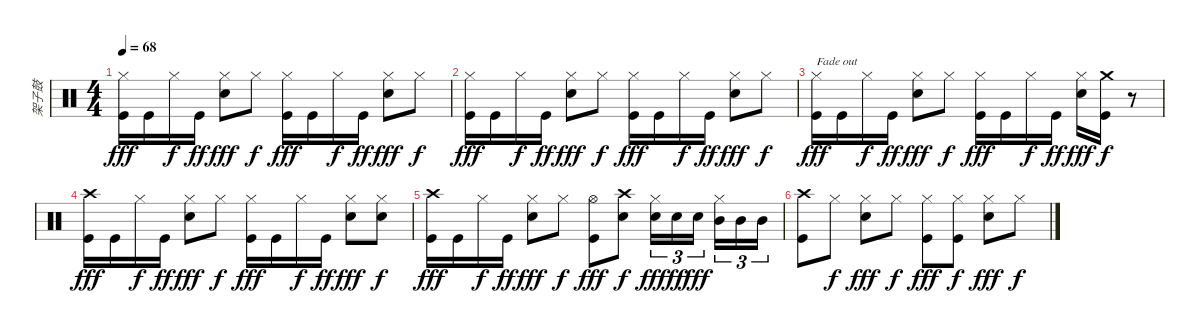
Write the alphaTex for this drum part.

\track ("架子鼓" "架子鼓") {instrument percussion}
\staff {score}
\articulation defaults
\ts (4 4)
\tempo 68
\clef neutral
\ks c
("Hi-Hat (closed)" "Kick (hit)").16{dy fff} "Kick (hit)".16 "Hi-Hat (closed)".16{dy f} "Kick (hit)".16{dy ff} ("Hi-Hat (closed)" "Snare (hit) 2").8{dy fff} "Hi-Hat (closed)".8{dy f} ("Hi-Hat (closed)" "Kick (hit)").16{dy fff} "Kick (hit)".16 "Hi-Hat (closed)".16{dy f} "Kick (hit)".16{dy ff} ("Hi-Hat (closed)" "Snare (hit) 2").8{dy fff} "Hi-Hat (closed)".8{dy f} |
("Hi-Hat (closed)" "Kick (hit)").16{dy fff} "Kick (hit)".16 "Hi-Hat (closed)".16{dy f} "Kick (hit)".16{dy ff} ("Hi-Hat (closed)" "Snare (hit) 2").8{dy fff} "Hi-Hat (closed)".8{dy f} ("Hi-Hat (closed)" "Kick (hit)").16{dy fff} "Kick (hit)".16 "Hi-Hat (closed)".16{dy f} "Kick (hit)".16{dy ff} ("Hi-Hat (closed)" "Snare (hit) 2").8{dy fff} "Hi-Hat (closed)".8{dy f} |
("Hi-Hat (closed)" "Kick (hit)").16{txt "Fade out" dy fff volume 8} "Kick (hit)".16 "Hi-Hat (closed)".16{dy f} "Kick (hit)".16{dy ff} ("Hi-Hat (closed)" "Snare (hit) 2").8{dy fff} "Hi-Hat (closed)".8{dy f} ("Hi-Hat (closed)" "Kick (hit)").16{dy fff} "Kick (hit)".16 "Hi-Hat (closed)".16{dy f} "Kick (hit)".16{dy ff} ("Hi-Hat (closed)" "Snare (hit) 2").16{dy fff} ("Crash medium (hit)" "Kick (hit)").16{dy f} r.8 |
("Crash high (hit)" "Kick (hit)").16{dy fff} "Kick (hit)".16 "Hi-Hat (closed)".16{dy f} "Kick (hit)".16{dy ff} ("Hi-Hat (closed)" "Snare (hit) 2").8{dy fff} "Hi-Hat (closed)".8{dy f} ("Hi-Hat (closed)" "Kick (hit)").16{dy fff} "Kick (hit)".16 "Hi-Hat (closed)".16{dy f} "Kick (hit)".16{dy ff} ("Hi-Hat (closed)" "Snare (hit) 2").8{dy fff} ("Hi-Hat (closed)" "Snare (hit) 2").8{dy f} |
("Crash high (hit)" "Kick (hit)").16{dy fff volume 0} "Kick (hit)".16 "Hi-Hat (closed)".16{dy f} "Kick (hit)".16{dy ff} ("Hi-Hat (closed)" "Snare (hit) 2").8{dy fff} "Hi-Hat (closed)".8{dy f} ("Hi-Hat (open)" "Kick (hit)").8{dy fff} ("Crash high (hit)" "Snare (hit) 2").8{dy f} ("Hi-Hat (closed)" "Snare (hit) 2").16{tu (3 2) dy fff} "Snare (hit) 2".16{tu (3 2) dy ff} "Snare (hit) 2".16{tu (3 2) dy fff} ("Hi-Hat (closed)" "Mid Tom (hit)").16{tu (3 2)} "Mid Tom (hit)".16{tu (3 2)} "Mid Tom (hit)".16{tu (3 2)} |
("Crash high (hit)" "Kick (hit)").8 "Hi-Hat (closed)".8{dy f} ("Hi-Hat (closed)" "Snare (hit) 2").8{dy fff} "Hi-Hat (closed)".8{dy f} ("Hi-Hat (closed)" "Kick (hit)").8{dy fff} ("Hi-Hat (closed)" "Kick (hit)").8{dy f} ("Hi-Hat (closed)" "Snare (hit) 2").8{dy fff} "Hi-Hat (closed)".8{dy f}
